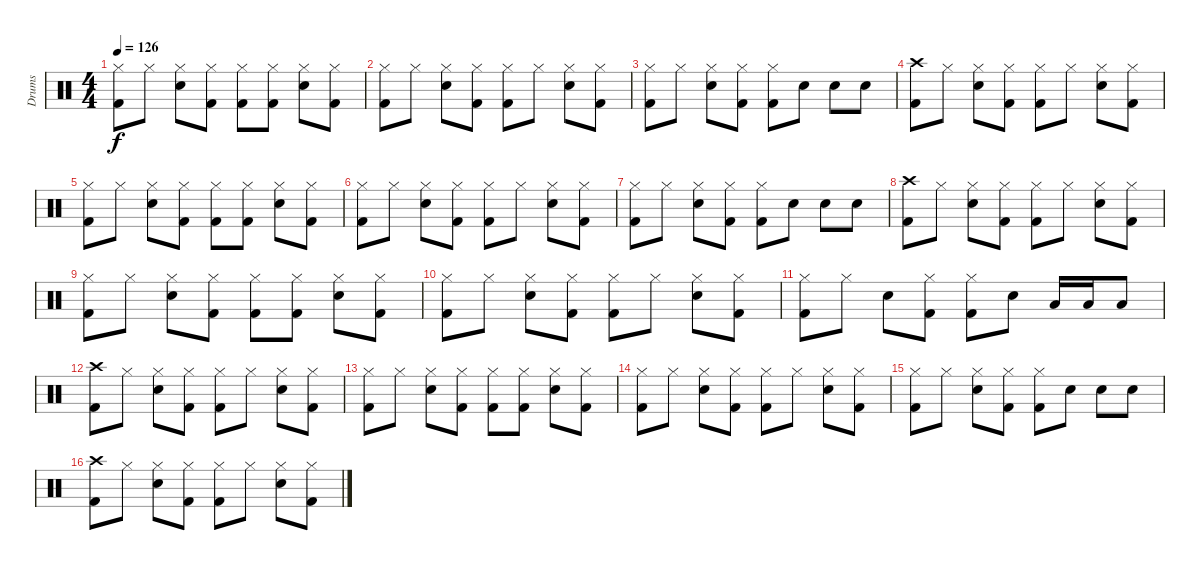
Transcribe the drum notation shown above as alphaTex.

\track ("Drums" "Drums") {instrument percussion}
\staff {score}
\articulation defaults
\ts (4 4)
\tempo 126
\clef neutral
\ks c
("Hi-Hat (closed)" "Kick (hit) 2").8{dy f} "Hi-Hat (closed)".8 ("Hi-Hat (closed)" "Snare (hit) 2").8 ("Hi-Hat (closed)" "Kick (hit) 2").8 ("Hi-Hat (closed)" "Kick (hit) 2").8 ("Hi-Hat (closed)" "Kick (hit) 2").8 ("Hi-Hat (closed)" "Snare (hit) 2").8 ("Hi-Hat (closed)" "Kick (hit) 2").8 |
("Hi-Hat (closed)" "Kick (hit) 2").8 "Hi-Hat (closed)".8 ("Hi-Hat (closed)" "Snare (hit) 2").8 ("Hi-Hat (closed)" "Kick (hit) 2").8 ("Hi-Hat (closed)" "Kick (hit) 2").8 "Hi-Hat (closed)".8 ("Hi-Hat (closed)" "Snare (hit) 2").8 ("Hi-Hat (closed)" "Kick (hit) 2").8 |
("Hi-Hat (closed)" "Kick (hit) 2").8 "Hi-Hat (closed)".8 ("Hi-Hat (closed)" "Snare (hit) 2").8 ("Hi-Hat (closed)" "Kick (hit) 2").8 ("Hi-Hat (closed)" "Kick (hit) 2").8 "Snare (hit) 2".8 "Snare (hit) 2".8 "Snare (hit) 2".8 |
("Crash high (hit)" "Kick (hit) 2").8 "Hi-Hat (closed)".8 ("Hi-Hat (closed)" "Snare (hit) 2").8 ("Hi-Hat (closed)" "Kick (hit) 2").8 ("Hi-Hat (closed)" "Kick (hit) 2").8 "Hi-Hat (closed)".8 ("Hi-Hat (closed)" "Snare (hit) 2").8 ("Hi-Hat (closed)" "Kick (hit) 2").8 |
("Hi-Hat (closed)" "Kick (hit) 2").8 "Hi-Hat (closed)".8 ("Hi-Hat (closed)" "Snare (hit) 2").8 ("Hi-Hat (closed)" "Kick (hit) 2").8 ("Hi-Hat (closed)" "Kick (hit) 2").8 ("Hi-Hat (closed)" "Kick (hit) 2").8 ("Hi-Hat (closed)" "Snare (hit) 2").8 ("Hi-Hat (closed)" "Kick (hit) 2").8 |
("Hi-Hat (closed)" "Kick (hit) 2").8 "Hi-Hat (closed)".8 ("Hi-Hat (closed)" "Snare (hit) 2").8 ("Hi-Hat (closed)" "Kick (hit) 2").8 ("Hi-Hat (closed)" "Kick (hit) 2").8 "Hi-Hat (closed)".8 ("Hi-Hat (closed)" "Snare (hit) 2").8 ("Hi-Hat (closed)" "Kick (hit) 2").8 |
("Hi-Hat (closed)" "Kick (hit) 2").8 "Hi-Hat (closed)".8 ("Hi-Hat (closed)" "Snare (hit) 2").8 ("Hi-Hat (closed)" "Kick (hit) 2").8 ("Hi-Hat (closed)" "Kick (hit) 2").8 "Snare (hit) 2".8 "Snare (hit) 2".8 "Snare (hit) 2".8 |
("Crash high (hit)" "Kick (hit) 2").8 "Hi-Hat (closed)".8 ("Hi-Hat (closed)" "Snare (hit) 2").8 ("Hi-Hat (closed)" "Kick (hit) 2").8 ("Hi-Hat (closed)" "Kick (hit) 2").8 "Hi-Hat (closed)".8 ("Hi-Hat (closed)" "Snare (hit) 2").8 ("Hi-Hat (closed)" "Kick (hit) 2").8 |
("Hi-Hat (closed)" "Kick (hit) 2").8 "Hi-Hat (closed)".8 ("Hi-Hat (closed)" "Snare (hit) 2").8 ("Hi-Hat (closed)" "Kick (hit) 2").8 ("Hi-Hat (closed)" "Kick (hit) 2").8 ("Hi-Hat (closed)" "Kick (hit) 2").8 ("Hi-Hat (closed)" "Snare (hit) 2").8 ("Hi-Hat (closed)" "Kick (hit) 2").8 |
("Hi-Hat (closed)" "Kick (hit) 2").8 "Hi-Hat (closed)".8 ("Hi-Hat (closed)" "Snare (hit) 2").8 ("Hi-Hat (closed)" "Kick (hit) 2").8 ("Hi-Hat (closed)" "Kick (hit) 2").8 "Hi-Hat (closed)".8 ("Hi-Hat (closed)" "Snare (hit) 2").8 ("Hi-Hat (closed)" "Kick (hit) 2").8 |
("Hi-Hat (closed)" "Kick (hit) 2").8 "Hi-Hat (closed)".8 "Snare (hit) 2".8 ("Hi-Hat (closed)" "Kick (hit) 2").8 ("Hi-Hat (closed)" "Kick (hit) 2").8 "Snare (hit) 2".8 "Low Tom (hit)".16 "Low Tom (hit)".16 "Low Tom (hit)".8 |
("Crash high (hit)" "Kick (hit) 2").8{volume 9} "Hi-Hat (closed)".8 ("Hi-Hat (closed)" "Snare (hit) 2").8 ("Hi-Hat (closed)" "Kick (hit) 2").8 ("Hi-Hat (closed)" "Kick (hit) 2").8 "Hi-Hat (closed)".8 ("Hi-Hat (closed)" "Snare (hit) 2").8 ("Hi-Hat (closed)" "Kick (hit) 2").8 |
("Hi-Hat (closed)" "Kick (hit) 2").8 "Hi-Hat (closed)".8 ("Hi-Hat (closed)" "Snare (hit) 2").8 ("Hi-Hat (closed)" "Kick (hit) 2").8 ("Hi-Hat (closed)" "Kick (hit) 2").8 ("Hi-Hat (closed)" "Kick (hit) 2").8 ("Hi-Hat (closed)" "Snare (hit) 2").8 ("Hi-Hat (closed)" "Kick (hit) 2").8 |
("Hi-Hat (closed)" "Kick (hit) 2").8{volume 4} "Hi-Hat (closed)".8 ("Hi-Hat (closed)" "Snare (hit) 2").8 ("Hi-Hat (closed)" "Kick (hit) 2").8 ("Hi-Hat (closed)" "Kick (hit) 2").8 "Hi-Hat (closed)".8 ("Hi-Hat (closed)" "Snare (hit) 2").8 ("Hi-Hat (closed)" "Kick (hit) 2").8 |
("Hi-Hat (closed)" "Kick (hit) 2").8 "Hi-Hat (closed)".8 ("Hi-Hat (closed)" "Snare (hit) 2").8 ("Hi-Hat (closed)" "Kick (hit) 2").8 ("Hi-Hat (closed)" "Kick (hit) 2").8 "Snare (hit) 2".8 "Snare (hit) 2".8 "Snare (hit) 2".8 |
("Crash high (hit)" "Kick (hit) 2").8{volume 0} "Hi-Hat (closed)".8 ("Hi-Hat (closed)" "Snare (hit) 2").8 ("Hi-Hat (closed)" "Kick (hit) 2").8 ("Hi-Hat (closed)" "Kick (hit) 2").8 "Hi-Hat (closed)".8 ("Hi-Hat (closed)" "Snare (hit) 2").8 ("Hi-Hat (closed)" "Kick (hit) 2").8
